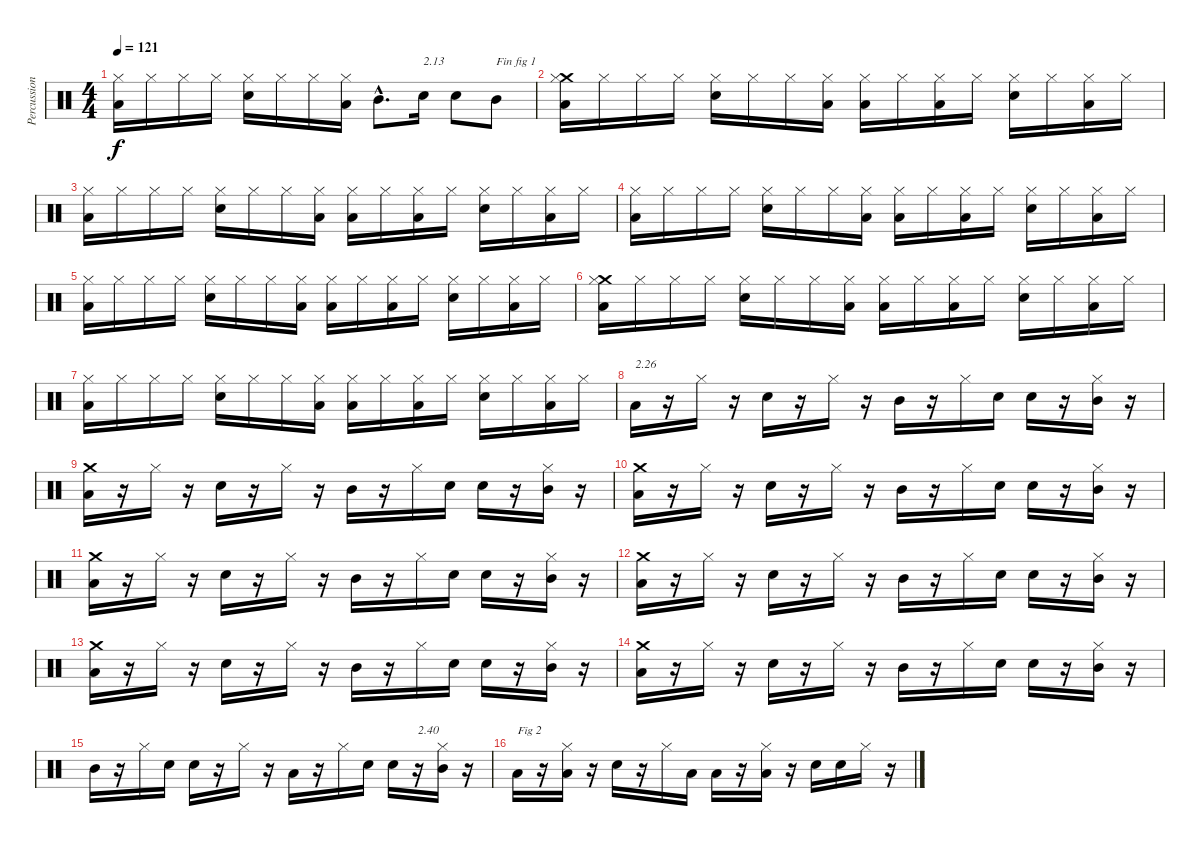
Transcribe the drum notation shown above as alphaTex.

\track ("Percussions" "Percussion") {instrument percussion}
\staff {score}
\articulation defaults
\ts (4 4)
\tempo 121
\clef neutral
\ks c
("Low Floor Tom (hit)" "Hi-Hat (closed)").16{dy f} "Hi-Hat (closed)".16 "Hi-Hat (closed)".16 "Hi-Hat (closed)".16 ("Electric Snare (hit)" "Hi-Hat (closed)").16 "Hi-Hat (closed)".16 "Hi-Hat (closed)".16 ("Low Floor Tom (hit)" "Hi-Hat (closed)").16 "Mid Tom (hit)"{hac}.8{d} "Electric Snare (hit)".16{txt "2.13"} "Electric Snare (hit)".8 "Mid Tom (hit)".8{txt "Fin fig 1"} |
("Low Floor Tom (hit)" "Crash medium (hit)" "Hi-Hat (closed)").16 "Hi-Hat (closed)".16 "Hi-Hat (closed)".16 "Hi-Hat (closed)".16 ("Electric Snare (hit)" "Hi-Hat (closed)").16 "Hi-Hat (closed)".16 "Hi-Hat (closed)".16 ("Low Floor Tom (hit)" "Hi-Hat (closed)").16 ("Low Floor Tom (hit)" "Hi-Hat (closed)").16 "Hi-Hat (closed)".16 ("Low Floor Tom (hit)" "Hi-Hat (closed)").16 "Hi-Hat (closed)".16 ("Electric Snare (hit)" "Hi-Hat (closed)").16 "Hi-Hat (closed)".16 ("Low Floor Tom (hit)" "Hi-Hat (closed)").16 "Hi-Hat (closed)".16 |
("Low Floor Tom (hit)" "Hi-Hat (closed)").16 "Hi-Hat (closed)".16 "Hi-Hat (closed)".16 "Hi-Hat (closed)".16 ("Electric Snare (hit)" "Hi-Hat (closed)").16 "Hi-Hat (closed)".16 "Hi-Hat (closed)".16 ("Low Floor Tom (hit)" "Hi-Hat (closed)").16 ("Low Floor Tom (hit)" "Hi-Hat (closed)").16 "Hi-Hat (closed)".16 ("Low Floor Tom (hit)" "Hi-Hat (closed)").16 "Hi-Hat (closed)".16 ("Electric Snare (hit)" "Hi-Hat (closed)").16 "Hi-Hat (closed)".16 ("Low Floor Tom (hit)" "Hi-Hat (closed)").16 "Hi-Hat (closed)".16 |
("Low Floor Tom (hit)" "Hi-Hat (closed)").16 "Hi-Hat (closed)".16 "Hi-Hat (closed)".16 "Hi-Hat (closed)".16 ("Electric Snare (hit)" "Hi-Hat (closed)").16 "Hi-Hat (closed)".16 "Hi-Hat (closed)".16 ("Low Floor Tom (hit)" "Hi-Hat (closed)").16 ("Low Floor Tom (hit)" "Hi-Hat (closed)").16 "Hi-Hat (closed)".16 ("Low Floor Tom (hit)" "Hi-Hat (closed)").16 "Hi-Hat (closed)".16 ("Electric Snare (hit)" "Hi-Hat (closed)").16 "Hi-Hat (closed)".16 ("Low Floor Tom (hit)" "Hi-Hat (closed)").16 "Hi-Hat (closed)".16 |
("Low Floor Tom (hit)" "Hi-Hat (closed)").16 "Hi-Hat (closed)".16 "Hi-Hat (closed)".16 "Hi-Hat (closed)".16 ("Electric Snare (hit)" "Hi-Hat (closed)").16 "Hi-Hat (closed)".16 "Hi-Hat (closed)".16 ("Low Floor Tom (hit)" "Hi-Hat (closed)").16 ("Low Floor Tom (hit)" "Hi-Hat (closed)").16 "Hi-Hat (closed)".16 ("Low Floor Tom (hit)" "Hi-Hat (closed)").16 "Hi-Hat (closed)".16 ("Electric Snare (hit)" "Hi-Hat (closed)").16 "Hi-Hat (closed)".16 ("Low Floor Tom (hit)" "Hi-Hat (closed)").16 "Hi-Hat (closed)".16 |
("Low Floor Tom (hit)" "Crash medium (hit)" "Hi-Hat (closed)").16 "Hi-Hat (closed)".16 "Hi-Hat (closed)".16 "Hi-Hat (closed)".16 ("Electric Snare (hit)" "Hi-Hat (closed)").16 "Hi-Hat (closed)".16 "Hi-Hat (closed)".16 ("Low Floor Tom (hit)" "Hi-Hat (closed)").16 ("Low Floor Tom (hit)" "Hi-Hat (closed)").16 "Hi-Hat (closed)".16 ("Low Floor Tom (hit)" "Hi-Hat (closed)").16 "Hi-Hat (closed)".16 ("Electric Snare (hit)" "Hi-Hat (closed)").16 "Hi-Hat (closed)".16 ("Low Floor Tom (hit)" "Hi-Hat (closed)").16 "Hi-Hat (closed)".16 |
("Low Floor Tom (hit)" "Hi-Hat (closed)").16 "Hi-Hat (closed)".16 "Hi-Hat (closed)".16 "Hi-Hat (closed)".16 ("Electric Snare (hit)" "Hi-Hat (closed)").16 "Hi-Hat (closed)".16 "Hi-Hat (closed)".16 ("Low Floor Tom (hit)" "Hi-Hat (closed)").16 ("Low Floor Tom (hit)" "Hi-Hat (closed)").16 "Hi-Hat (closed)".16 ("Low Floor Tom (hit)" "Hi-Hat (closed)").16 "Hi-Hat (closed)".16 ("Electric Snare (hit)" "Hi-Hat (closed)").16 "Hi-Hat (closed)".16 ("Low Floor Tom (hit)" "Hi-Hat (closed)").16 "Hi-Hat (closed)".16 |
"Low Floor Tom (hit)".16{txt "2.26"} r.16 "Hi-Hat (closed)".16 r.16 "Electric Snare (hit)".16 r.16 "Hi-Hat (closed)".16 r.16 "Mid Tom (hit)".16 r.16 "Hi-Hat (closed)".16 "Electric Snare (hit)".16 "Electric Snare (hit)".16 r.16 ("Mid Tom (hit)" "Hi-Hat (closed)").16 r.16 |
("Low Floor Tom (hit)" "Crash medium (hit)").16 r.16 "Hi-Hat (closed)".16 r.16 "Electric Snare (hit)".16 r.16 "Hi-Hat (closed)".16 r.16 "Mid Tom (hit)".16 r.16 "Hi-Hat (closed)".16 "Electric Snare (hit)".16 "Electric Snare (hit)".16 r.16 ("Mid Tom (hit)" "Hi-Hat (closed)").16 r.16 |
("Low Floor Tom (hit)" "Crash medium (hit)").16 r.16 "Hi-Hat (closed)".16 r.16 "Electric Snare (hit)".16 r.16 "Hi-Hat (closed)".16 r.16 "Mid Tom (hit)".16 r.16 "Hi-Hat (closed)".16 "Electric Snare (hit)".16 "Electric Snare (hit)".16 r.16 ("Mid Tom (hit)" "Hi-Hat (closed)").16 r.16 |
("Low Floor Tom (hit)" "Crash medium (hit)").16 r.16 "Hi-Hat (closed)".16 r.16 "Electric Snare (hit)".16 r.16 "Hi-Hat (closed)".16 r.16 "Mid Tom (hit)".16 r.16 "Hi-Hat (closed)".16 "Electric Snare (hit)".16 "Electric Snare (hit)".16 r.16 ("Mid Tom (hit)" "Hi-Hat (closed)").16 r.16 |
("Low Floor Tom (hit)" "Crash medium (hit)").16 r.16 "Hi-Hat (closed)".16 r.16 "Electric Snare (hit)".16 r.16 "Hi-Hat (closed)".16 r.16 "Mid Tom (hit)".16 r.16 "Hi-Hat (closed)".16 "Electric Snare (hit)".16 "Electric Snare (hit)".16 r.16 ("Mid Tom (hit)" "Hi-Hat (closed)").16 r.16 |
("Low Floor Tom (hit)" "Crash medium (hit)").16 r.16 "Hi-Hat (closed)".16 r.16 "Electric Snare (hit)".16 r.16 "Hi-Hat (closed)".16 r.16 "Mid Tom (hit)".16 r.16 "Hi-Hat (closed)".16 "Electric Snare (hit)".16 "Electric Snare (hit)".16 r.16 ("Mid Tom (hit)" "Hi-Hat (closed)").16 r.16 |
("Low Floor Tom (hit)" "Crash medium (hit)").16 r.16 "Hi-Hat (closed)".16 r.16 "Electric Snare (hit)".16 r.16 "Hi-Hat (closed)".16 r.16 "Mid Tom (hit)".16 r.16 "Hi-Hat (closed)".16 "Electric Snare (hit)".16 "Electric Snare (hit)".16 r.16 ("Mid Tom (hit)" "Hi-Hat (closed)").16 r.16 |
"Mid Tom (hit)".16 r.16 "Hi-Hat (closed)".16 "Electric Snare (hit)".16 "Electric Snare (hit)".16 r.16 "Hi-Hat (closed)".16 r.16 "Low Floor Tom (hit)".16 r.16 "Hi-Hat (closed)".16 "Electric Snare (hit)".16 "Electric Snare (hit)".16 r.16{txt "2.40"} ("Mid Tom (hit)" "Hi-Hat (closed)").16 r.16 |
"Low Floor Tom (hit)".16{txt "Fig 2"} r.16 ("Low Floor Tom (hit)" "Hi-Hat (closed)").16 r.16 "Electric Snare (hit)".16 r.16 "Hi-Hat (closed)".16 "Low Floor Tom (hit)".16 "Low Floor Tom (hit)".16 r.16 ("Low Floor Tom (hit)" "Hi-Hat (closed)").16 r.16 "Electric Snare (hit)".16 "Electric Snare (hit)".16 "Hi-Hat (closed)".16 r.16
